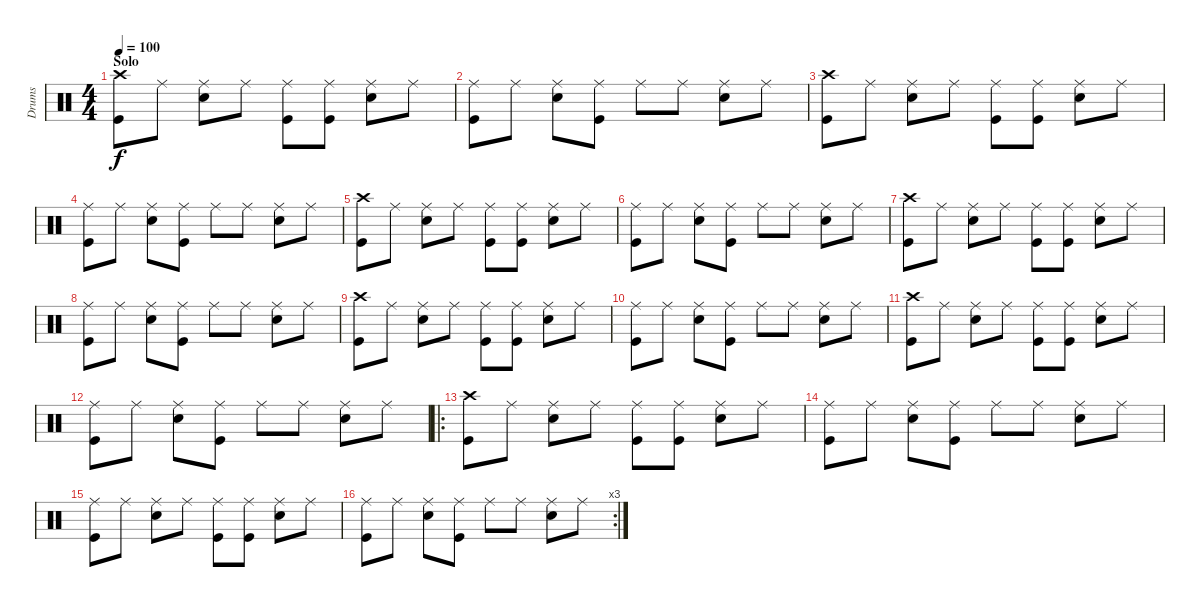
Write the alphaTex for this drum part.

\track ("Drums" "Drums") {instrument percussion}
\staff {score}
\articulation defaults
\ts (4 4)
\section ("" "Solo")
\tempo 100
\clef neutral
\ks c
("Crash high (hit)" "Kick (hit)").8{dy f} "Ride (middle)".8 ("Ride (middle)" "Snare (hit) 2").8 "Ride (middle)".8 ("Ride (middle)" "Kick (hit)").8 ("Ride (middle)" "Kick (hit)").8 ("Ride (middle)" "Snare (hit) 2").8 "Ride (middle)".8 |
("Ride (middle)" "Kick (hit)").8 "Ride (middle)".8 ("Ride (middle)" "Snare (hit) 2").8 ("Ride (middle)" "Kick (hit)").8 "Ride (middle)".8 "Ride (middle)".8 ("Ride (middle)" "Snare (hit) 2").8 "Ride (middle)".8 |
("Crash high (hit)" "Kick (hit)").8 "Ride (middle)".8 ("Ride (middle)" "Snare (hit) 2").8 "Ride (middle)".8 ("Ride (middle)" "Kick (hit)").8 ("Ride (middle)" "Kick (hit)").8 ("Ride (middle)" "Snare (hit) 2").8 "Ride (middle)".8 |
("Ride (middle)" "Kick (hit)").8 "Ride (middle)".8 ("Ride (middle)" "Snare (hit) 2").8 ("Ride (middle)" "Kick (hit)").8 "Ride (middle)".8 "Ride (middle)".8 ("Ride (middle)" "Snare (hit) 2").8 "Ride (middle)".8 |
("Crash high (hit)" "Kick (hit)").8 "Ride (middle)".8 ("Ride (middle)" "Snare (hit) 2").8 "Ride (middle)".8 ("Ride (middle)" "Kick (hit)").8 ("Ride (middle)" "Kick (hit)").8 ("Ride (middle)" "Snare (hit) 2").8 "Ride (middle)".8 |
("Ride (middle)" "Kick (hit)").8 "Ride (middle)".8 ("Ride (middle)" "Snare (hit) 2").8 ("Ride (middle)" "Kick (hit)").8 "Ride (middle)".8 "Ride (middle)".8 ("Ride (middle)" "Snare (hit) 2").8 "Ride (middle)".8 |
("Crash high (hit)" "Kick (hit)").8 "Ride (middle)".8 ("Ride (middle)" "Snare (hit) 2").8 "Ride (middle)".8 ("Ride (middle)" "Kick (hit)").8 ("Ride (middle)" "Kick (hit)").8 ("Ride (middle)" "Snare (hit) 2").8 "Ride (middle)".8 |
("Ride (middle)" "Kick (hit)").8 "Ride (middle)".8 ("Ride (middle)" "Snare (hit) 2").8 ("Ride (middle)" "Kick (hit)").8 "Ride (middle)".8 "Ride (middle)".8 ("Ride (middle)" "Snare (hit) 2").8 "Ride (middle)".8 |
("Crash high (hit)" "Kick (hit)").8 "Ride (middle)".8 ("Ride (middle)" "Snare (hit) 2").8 "Ride (middle)".8 ("Ride (middle)" "Kick (hit)").8 ("Ride (middle)" "Kick (hit)").8 ("Ride (middle)" "Snare (hit) 2").8 "Ride (middle)".8 |
("Ride (middle)" "Kick (hit)").8 "Ride (middle)".8 ("Ride (middle)" "Snare (hit) 2").8 ("Ride (middle)" "Kick (hit)").8 "Ride (middle)".8 "Ride (middle)".8 ("Ride (middle)" "Snare (hit) 2").8 "Ride (middle)".8 |
("Crash high (hit)" "Kick (hit)").8 "Ride (middle)".8 ("Ride (middle)" "Snare (hit) 2").8 "Ride (middle)".8 ("Ride (middle)" "Kick (hit)").8 ("Ride (middle)" "Kick (hit)").8 ("Ride (middle)" "Snare (hit) 2").8 "Ride (middle)".8 |
("Ride (middle)" "Kick (hit)").8 "Ride (middle)".8 ("Ride (middle)" "Snare (hit) 2").8 ("Ride (middle)" "Kick (hit)").8 "Ride (middle)".8 "Ride (middle)".8 ("Ride (middle)" "Snare (hit) 2").8 "Ride (middle)".8 |
\ro
("Crash high (hit)" "Kick (hit)").8 "Ride (middle)".8 ("Ride (middle)" "Snare (hit) 2").8 "Ride (middle)".8 ("Ride (middle)" "Kick (hit)").8 ("Ride (middle)" "Kick (hit)").8 ("Ride (middle)" "Snare (hit) 2").8 "Ride (middle)".8 |
("Ride (middle)" "Kick (hit)").8 "Ride (middle)".8 ("Ride (middle)" "Snare (hit) 2").8 ("Ride (middle)" "Kick (hit)").8 "Ride (middle)".8 "Ride (middle)".8 ("Ride (middle)" "Snare (hit) 2").8 "Ride (middle)".8 |
("Ride (middle)" "Kick (hit)").8 "Ride (middle)".8 ("Ride (middle)" "Snare (hit) 2").8 "Ride (middle)".8 ("Ride (middle)" "Kick (hit)").8 ("Ride (middle)" "Kick (hit)").8 ("Ride (middle)" "Snare (hit) 2").8 "Ride (middle)".8 |
\rc 3
("Ride (middle)" "Kick (hit)").8 "Ride (middle)".8 ("Ride (middle)" "Snare (hit) 2").8 ("Ride (middle)" "Kick (hit)").8 "Ride (middle)".8 "Ride (middle)".8 ("Ride (middle)" "Snare (hit) 2").8 "Ride (middle)".8
